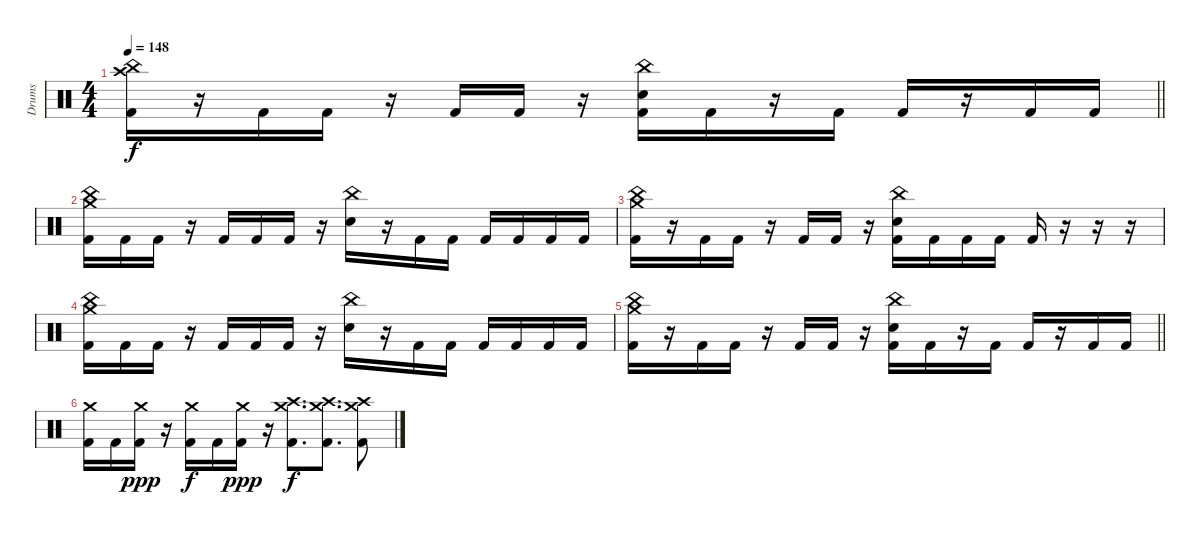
\track ("Drums" "Drums") {instrument percussion}
\staff {score}
\articulation defaults
\ts (4 4)
\tempo 148
\clef neutral
\barLineRight lightlight
\ks c
("Crash high (hit)" "China (hit)" "Kick (hit) 2").16{dy f} r.16 "Kick (hit) 2".16 "Kick (hit) 2".16 r.16 "Kick (hit) 2".16 "Kick (hit) 2".16 r.16 ("China (hit)" "Electric Snare (hit)" "Kick (hit) 2").16 "Kick (hit) 2".16 r.16 "Kick (hit) 2".16 "Kick (hit) 2".16 r.16 "Kick (hit) 2".16 "Kick (hit) 2".16 |
("China (hit)" "Crash medium (hit)" "Kick (hit) 2").16 "Kick (hit) 2".16 "Kick (hit) 2".16 r.16 "Kick (hit) 2".16 "Kick (hit) 2".16 "Kick (hit) 2".16 r.16 ("China (hit)" "Electric Snare (hit)").16 r.16 "Kick (hit) 2".16 "Kick (hit) 2".16 "Kick (hit) 2".16 "Kick (hit) 2".16 "Kick (hit) 2".16 "Kick (hit) 2".16 |
("China (hit)" "Crash medium (hit)" "Kick (hit) 2").16 r.16 "Kick (hit) 2".16 "Kick (hit) 2".16 r.16 "Kick (hit) 2".16 "Kick (hit) 2".16 r.16 ("China (hit)" "Electric Snare (hit)" "Kick (hit) 2").16 "Kick (hit) 2".16 "Kick (hit) 2".16 "Kick (hit) 2".16 "Kick (hit) 2".16 r.16 r.16 r.16 |
("China (hit)" "Crash medium (hit)" "Kick (hit) 2").16 "Kick (hit) 2".16 "Kick (hit) 2".16 r.16 "Kick (hit) 2".16 "Kick (hit) 2".16 "Kick (hit) 2".16 r.16 ("China (hit)" "Electric Snare (hit)").16 r.16 "Kick (hit) 2".16 "Kick (hit) 2".16 "Kick (hit) 2".16 "Kick (hit) 2".16 "Kick (hit) 2".16 "Kick (hit) 2".16 |
\barLineRight lightlight
("Crash medium (hit)" "China (hit)" "Kick (hit) 2").16 r.16 "Kick (hit) 2".16 "Kick (hit) 2".16 r.16 "Kick (hit) 2".16 "Kick (hit) 2".16 r.16 ("China (hit)" "Electric Snare (hit)" "Kick (hit) 2").16 "Kick (hit) 2".16 r.16 "Kick (hit) 2".16 "Kick (hit) 2".16 r.16 "Kick (hit) 2".16 "Kick (hit) 2".16 |
("Crash medium (hit)" "Kick (hit) 2").16 "Kick (hit) 2".16 ("Crash medium (hit)" "Kick (hit) 2").16{dy ppp} r.16 ("Crash medium (hit)" "Kick (hit) 2").16{dy f} "Kick (hit) 2".16 ("Crash medium (hit)" "Kick (hit) 2").16{dy ppp} r.16 ("Crash high (hit)" "Crash medium (hit)" "Kick (hit) 2").8{d dy f} ("Crash high (hit)" "Crash medium (hit)" "Kick (hit) 2").8{d} ("Crash high (hit)" "Crash medium (hit)" "Kick (hit) 2").8
